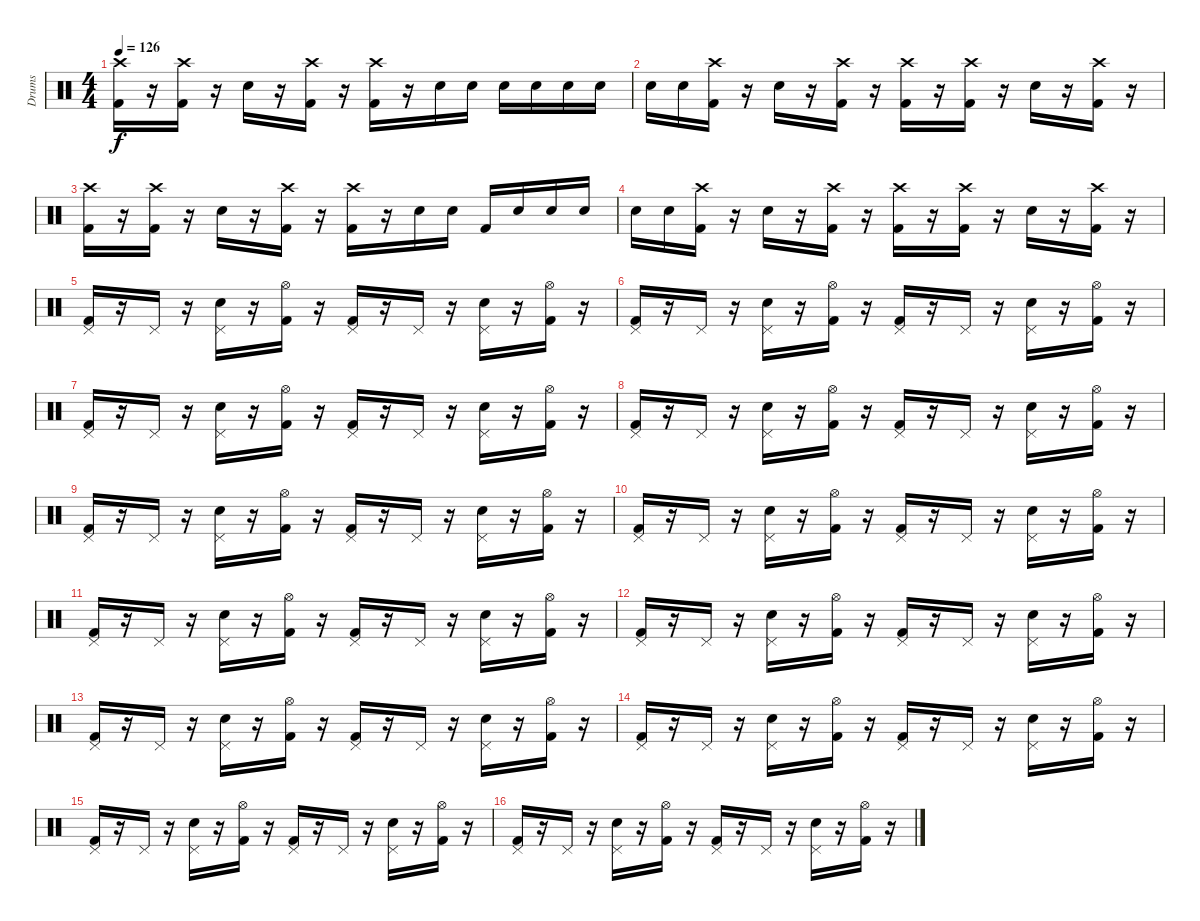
\track ("Drums" "Drums") {instrument percussion}
\staff {score}
\articulation defaults
\ts (4 4)
\tempo 126
\clef neutral
\ks c
("Crash high (hit)" "Kick (hit) 2").16{dy f} r.16 ("Crash high (hit)" "Kick (hit) 2").16 r.16 "Electric Snare (hit)".16 r.16 ("Crash high (hit)" "Kick (hit) 2").16 r.16 ("Crash high (hit)" "Kick (hit) 2").16 r.16 "Electric Snare (hit)".16 "Electric Snare (hit)".16 "Electric Snare (hit)".16 "Electric Snare (hit)".16 "Electric Snare (hit)".16 "Electric Snare (hit)".16 |
"Electric Snare (hit)".16 "Electric Snare (hit)".16 ("Crash high (hit)" "Kick (hit) 2").16 r.16 "Electric Snare (hit)".16 r.16 ("Crash high (hit)" "Kick (hit) 2").16 r.16 ("Crash high (hit)" "Kick (hit) 2").16 r.16 ("Crash high (hit)" "Kick (hit) 2").16 r.16 "Electric Snare (hit)".16 r.16 ("Crash high (hit)" "Kick (hit) 2").16 r.16 |
("Crash high (hit)" "Kick (hit) 2").16 r.16 ("Crash high (hit)" "Kick (hit) 2").16 r.16 "Electric Snare (hit)".16 r.16 ("Crash high (hit)" "Kick (hit) 2").16 r.16 ("Crash high (hit)" "Kick (hit) 2").16 r.16 "Electric Snare (hit)".16 "Electric Snare (hit)".16 "Kick (hit) 2".16 "Electric Snare (hit)".16 "Electric Snare (hit)".16 "Electric Snare (hit)".16 |
"Electric Snare (hit)".16 "Electric Snare (hit)".16 ("Crash high (hit)" "Kick (hit) 2").16 r.16 "Electric Snare (hit)".16 r.16 ("Crash high (hit)" "Kick (hit) 2").16 r.16 ("Crash high (hit)" "Kick (hit) 2").16 r.16 ("Crash high (hit)" "Kick (hit) 2").16 r.16 "Electric Snare (hit)".16 r.16 ("Crash high (hit)" "Kick (hit) 2").16 r.16 |
("Pedal Hi-Hat (hit)" "Kick (hit) 2").16 r.16 "Pedal Hi-Hat (hit)".16 r.16 ("Pedal Hi-Hat (hit)" "Electric Snare (hit)").16 r.16 ("Hi-Hat (open)" "Kick (hit) 2").16 r.16 ("Pedal Hi-Hat (hit)" "Kick (hit) 2").16 r.16 "Pedal Hi-Hat (hit)".16 r.16 ("Pedal Hi-Hat (hit)" "Electric Snare (hit)").16 r.16 ("Hi-Hat (open)" "Kick (hit) 2").16 r.16 |
("Pedal Hi-Hat (hit)" "Kick (hit) 2").16 r.16 "Pedal Hi-Hat (hit)".16 r.16 ("Pedal Hi-Hat (hit)" "Electric Snare (hit)").16 r.16 ("Hi-Hat (open)" "Kick (hit) 2").16 r.16 ("Pedal Hi-Hat (hit)" "Kick (hit) 2").16 r.16 "Pedal Hi-Hat (hit)".16 r.16 ("Pedal Hi-Hat (hit)" "Electric Snare (hit)").16 r.16 ("Hi-Hat (open)" "Kick (hit) 2").16 r.16 |
("Pedal Hi-Hat (hit)" "Kick (hit) 2").16 r.16 "Pedal Hi-Hat (hit)".16 r.16 ("Pedal Hi-Hat (hit)" "Electric Snare (hit)").16 r.16 ("Hi-Hat (open)" "Kick (hit) 2").16 r.16 ("Pedal Hi-Hat (hit)" "Kick (hit) 2").16 r.16 "Pedal Hi-Hat (hit)".16 r.16 ("Pedal Hi-Hat (hit)" "Electric Snare (hit)").16 r.16 ("Hi-Hat (open)" "Kick (hit) 2").16 r.16 |
("Pedal Hi-Hat (hit)" "Kick (hit) 2").16 r.16 "Pedal Hi-Hat (hit)".16 r.16 ("Pedal Hi-Hat (hit)" "Electric Snare (hit)").16 r.16 ("Hi-Hat (open)" "Kick (hit) 2").16 r.16 ("Pedal Hi-Hat (hit)" "Kick (hit) 2").16 r.16 "Pedal Hi-Hat (hit)".16 r.16 ("Pedal Hi-Hat (hit)" "Electric Snare (hit)").16 r.16 ("Hi-Hat (open)" "Kick (hit) 2").16 r.16 |
("Pedal Hi-Hat (hit)" "Kick (hit) 2").16 r.16 "Pedal Hi-Hat (hit)".16 r.16 ("Pedal Hi-Hat (hit)" "Electric Snare (hit)").16 r.16 ("Hi-Hat (open)" "Kick (hit) 2").16 r.16 ("Pedal Hi-Hat (hit)" "Kick (hit) 2").16 r.16 "Pedal Hi-Hat (hit)".16 r.16 ("Pedal Hi-Hat (hit)" "Electric Snare (hit)").16 r.16 ("Hi-Hat (open)" "Kick (hit) 2").16 r.16 |
("Pedal Hi-Hat (hit)" "Kick (hit) 2").16 r.16 "Pedal Hi-Hat (hit)".16 r.16 ("Pedal Hi-Hat (hit)" "Electric Snare (hit)").16 r.16 ("Hi-Hat (open)" "Kick (hit) 2").16 r.16 ("Pedal Hi-Hat (hit)" "Kick (hit) 2").16 r.16 "Pedal Hi-Hat (hit)".16 r.16 ("Pedal Hi-Hat (hit)" "Electric Snare (hit)").16 r.16 ("Hi-Hat (open)" "Kick (hit) 2").16 r.16 |
("Pedal Hi-Hat (hit)" "Kick (hit) 2").16 r.16 "Pedal Hi-Hat (hit)".16 r.16 ("Pedal Hi-Hat (hit)" "Electric Snare (hit)").16 r.16 ("Hi-Hat (open)" "Kick (hit) 2").16 r.16 ("Pedal Hi-Hat (hit)" "Kick (hit) 2").16 r.16 "Pedal Hi-Hat (hit)".16 r.16 ("Pedal Hi-Hat (hit)" "Electric Snare (hit)").16 r.16 ("Hi-Hat (open)" "Kick (hit) 2").16 r.16 |
("Pedal Hi-Hat (hit)" "Kick (hit) 2").16 r.16 "Pedal Hi-Hat (hit)".16 r.16 ("Pedal Hi-Hat (hit)" "Electric Snare (hit)").16 r.16 ("Hi-Hat (open)" "Kick (hit) 2").16 r.16 ("Pedal Hi-Hat (hit)" "Kick (hit) 2").16 r.16 "Pedal Hi-Hat (hit)".16 r.16 ("Pedal Hi-Hat (hit)" "Electric Snare (hit)").16 r.16 ("Hi-Hat (open)" "Kick (hit) 2").16 r.16 |
("Pedal Hi-Hat (hit)" "Kick (hit) 2").16 r.16 "Pedal Hi-Hat (hit)".16 r.16 ("Pedal Hi-Hat (hit)" "Electric Snare (hit)").16 r.16 ("Hi-Hat (open)" "Kick (hit) 2").16 r.16 ("Pedal Hi-Hat (hit)" "Kick (hit) 2").16 r.16 "Pedal Hi-Hat (hit)".16 r.16 ("Pedal Hi-Hat (hit)" "Electric Snare (hit)").16 r.16 ("Hi-Hat (open)" "Kick (hit) 2").16 r.16 |
("Pedal Hi-Hat (hit)" "Kick (hit) 2").16 r.16 "Pedal Hi-Hat (hit)".16 r.16 ("Pedal Hi-Hat (hit)" "Electric Snare (hit)").16 r.16 ("Hi-Hat (open)" "Kick (hit) 2").16 r.16 ("Pedal Hi-Hat (hit)" "Kick (hit) 2").16 r.16 "Pedal Hi-Hat (hit)".16 r.16 ("Pedal Hi-Hat (hit)" "Electric Snare (hit)").16 r.16 ("Hi-Hat (open)" "Kick (hit) 2").16 r.16 |
("Pedal Hi-Hat (hit)" "Kick (hit) 2").16 r.16 "Pedal Hi-Hat (hit)".16 r.16 ("Pedal Hi-Hat (hit)" "Electric Snare (hit)").16 r.16 ("Hi-Hat (open)" "Kick (hit) 2").16 r.16 ("Pedal Hi-Hat (hit)" "Kick (hit) 2").16 r.16 "Pedal Hi-Hat (hit)".16 r.16 ("Pedal Hi-Hat (hit)" "Electric Snare (hit)").16 r.16 ("Hi-Hat (open)" "Kick (hit) 2").16 r.16 |
("Pedal Hi-Hat (hit)" "Kick (hit) 2").16 r.16 "Pedal Hi-Hat (hit)".16 r.16 ("Pedal Hi-Hat (hit)" "Electric Snare (hit)").16 r.16 ("Hi-Hat (open)" "Kick (hit) 2").16 r.16 ("Pedal Hi-Hat (hit)" "Kick (hit) 2").16 r.16 "Pedal Hi-Hat (hit)".16 r.16 ("Pedal Hi-Hat (hit)" "Electric Snare (hit)").16 r.16 ("Hi-Hat (open)" "Kick (hit) 2").16 r.16
